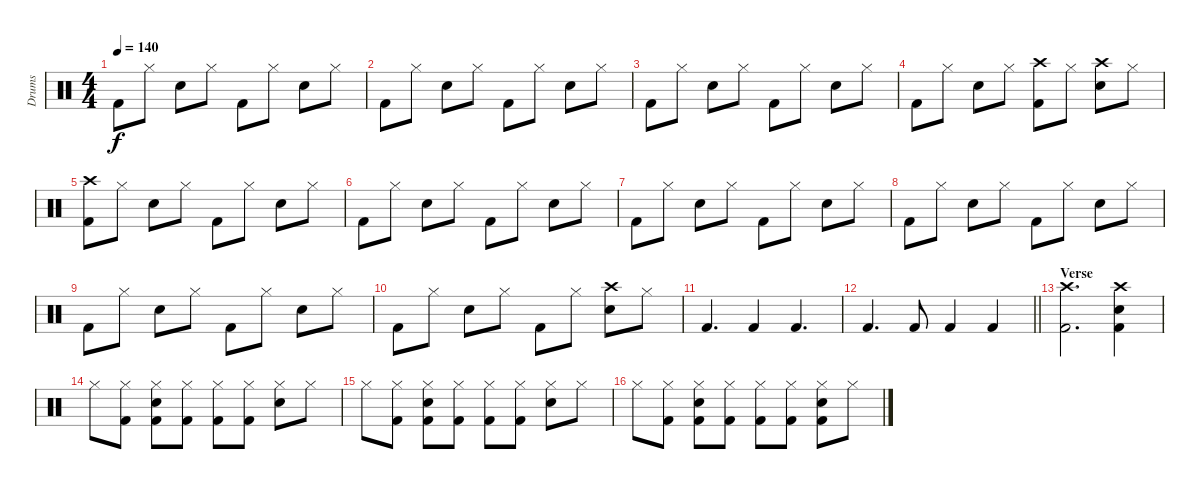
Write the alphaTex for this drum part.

\track ("Drums" "Drums") {instrument percussion}
\staff {score}
\articulation defaults
\ts (4 4)
\tempo 140
\clef neutral
\ks c "Kick (hit) 2".8{dy f} "Hi-Hat (closed)".8 "Snare (hit) 2".8 "Hi-Hat (closed)".8 "Kick (hit) 2".8 "Hi-Hat (closed)".8 "Snare (hit) 2".8 "Hi-Hat (closed)".8
|
"Kick (hit) 2".8 "Hi-Hat (closed)".8 "Snare (hit) 2".8 "Hi-Hat (closed)".8 "Kick (hit) 2".8 "Hi-Hat (closed)".8 "Snare (hit) 2".8 "Hi-Hat (closed)".8 |
"Kick (hit) 2".8 "Hi-Hat (closed)".8 "Snare (hit) 2".8 "Hi-Hat (closed)".8 "Kick (hit) 2".8 "Hi-Hat (closed)".8 "Snare (hit) 2".8 "Hi-Hat (closed)".8 |
"Kick (hit) 2".8 "Hi-Hat (closed)".8 "Snare (hit) 2".8 "Hi-Hat (closed)".8 ("Kick (hit) 2" "Crash high (hit)").8 "Hi-Hat (closed)".8 ("Snare (hit) 2" "Crash high (hit)").8 "Hi-Hat (closed)".8 |
("Kick (hit) 2" "Crash high (hit)").8 "Hi-Hat (closed)".8 "Snare (hit) 2".8 "Hi-Hat (closed)".8 "Kick (hit) 2".8 "Hi-Hat (closed)".8 "Snare (hit) 2".8 "Hi-Hat (closed)".8 |
"Kick (hit) 2".8 "Hi-Hat (closed)".8 "Snare (hit) 2".8 "Hi-Hat (closed)".8 "Kick (hit) 2".8 "Hi-Hat (closed)".8 "Snare (hit) 2".8 "Hi-Hat (closed)".8 |
"Kick (hit) 2".8 "Hi-Hat (closed)".8 "Snare (hit) 2".8 "Hi-Hat (closed)".8 "Kick (hit) 2".8 "Hi-Hat (closed)".8 "Snare (hit) 2".8 "Hi-Hat (closed)".8 |
"Kick (hit) 2".8 "Hi-Hat (closed)".8 "Snare (hit) 2".8 "Hi-Hat (closed)".8 "Kick (hit) 2".8 "Hi-Hat (closed)".8 "Snare (hit) 2".8 "Hi-Hat (closed)".8 |
"Kick (hit) 2".8 "Hi-Hat (closed)".8 "Snare (hit) 2".8 "Hi-Hat (closed)".8 "Kick (hit) 2".8 "Hi-Hat (closed)".8 "Snare (hit) 2".8 "Hi-Hat (closed)".8 |
"Kick (hit) 2".8 "Hi-Hat (closed)".8 "Snare (hit) 2".8 "Hi-Hat (closed)".8 "Kick (hit) 2".8 "Hi-Hat (closed)".8 ("Snare (hit) 2" "Crash high (hit)").8 "Hi-Hat (closed)".8 |
"Kick (hit) 2".4{d} "Kick (hit) 2".4 "Kick (hit) 2".4{d} |
\barLineRight lightlight "Kick (hit) 2".4{d} "Kick (hit) 2".8 "Kick (hit) 2".4 "Kick (hit) 2".4
|
\section ("" "Verse")
("Kick (hit) 2" "Crash high (hit)").2{d} ("Kick (hit) 2" "Crash high (hit)" "Snare (hit) 2").4 |
"Hi-Hat (closed)".8 ("Hi-Hat (closed)" "Kick (hit) 2").8 ("Hi-Hat (closed)" "Kick (hit) 2" "Snare (hit) 2").8 ("Hi-Hat (closed)" "Kick (hit) 2").8 ("Hi-Hat (closed)" "Kick (hit) 2").8 ("Hi-Hat (closed)" "Kick (hit) 2").8 ("Hi-Hat (closed)" "Snare (hit) 2").8 "Hi-Hat (closed)".8 |
"Hi-Hat (closed)".8 ("Hi-Hat (closed)" "Kick (hit) 2").8 ("Hi-Hat (closed)" "Kick (hit) 2" "Snare (hit) 2").8 ("Hi-Hat (closed)" "Kick (hit) 2").8 ("Hi-Hat (closed)" "Kick (hit) 2").8 ("Hi-Hat (closed)" "Kick (hit) 2").8 ("Hi-Hat (closed)" "Snare (hit) 2").8 "Hi-Hat (closed)".8 |
"Hi-Hat (closed)".8 ("Hi-Hat (closed)" "Kick (hit) 2").8 ("Hi-Hat (closed)" "Kick (hit) 2" "Snare (hit) 2").8 ("Hi-Hat (closed)" "Kick (hit) 2").8 ("Hi-Hat (closed)" "Kick (hit) 2").8 ("Hi-Hat (closed)" "Kick (hit) 2").8 ("Hi-Hat (closed)" "Snare (hit) 2" "Kick (hit) 2").8 "Hi-Hat (closed)".8
